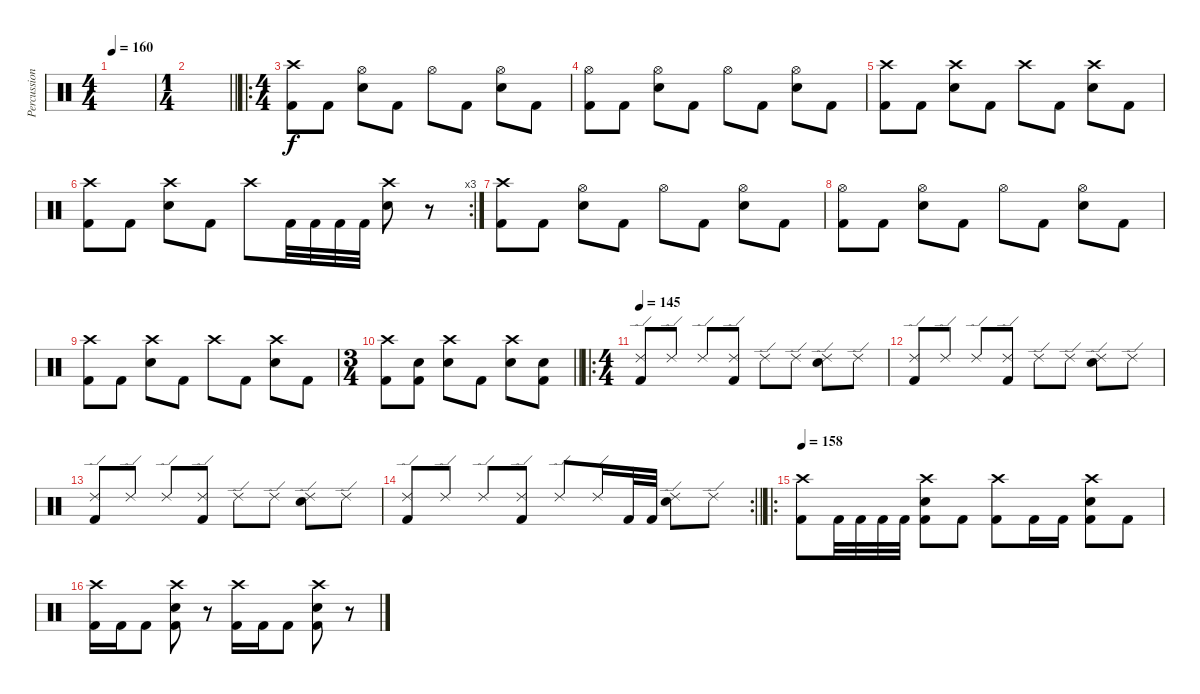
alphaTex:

\track ("Percussion" "Percussion") {instrument percussion}
\staff {score}
\articulation defaults
\ts (4 4)
\tempo 160
\clef neutral
\ks c
|
\ts (1 4)
\barLineRight lightlight
|
\ro
\ts (4 4)
\section ("" "")
("Crash high (hit)" "Kick (hit) 2").8 "Kick (hit) 2".8 ("Hi-Hat (open)" "Snare (hit) 2").8 "Kick (hit) 2".8 "Hi-Hat (open)".8 "Kick (hit) 2".8 ("Hi-Hat (open)" "Snare (hit) 2").8 "Kick (hit) 2".8 |
("Hi-Hat (open)" "Kick (hit) 2").8 "Kick (hit) 2".8 ("Hi-Hat (open)" "Snare (hit) 2").8 "Kick (hit) 2".8 "Hi-Hat (open)".8 "Kick (hit) 2".8 ("Hi-Hat (open)" "Snare (hit) 2").8 "Kick (hit) 2".8 |
("Crash high (hit)" "Kick (hit) 2").8 "Kick (hit) 2".8 ("Crash high (hit)" "Snare (hit) 2").8 "Kick (hit) 2".8 "Crash high (hit)".8 "Kick (hit) 2".8 ("Crash high (hit)" "Snare (hit) 2").8 "Kick (hit) 2".8 |
\rc 3
("Crash high (hit)" "Kick (hit) 2").8 "Kick (hit) 2".8 ("Crash high (hit)" "Snare (hit) 2").8 "Kick (hit) 2".8 "Crash high (hit)".8 "Kick (hit) 2".32 "Kick (hit) 2".32 "Kick (hit) 2".32 "Kick (hit) 2".32 ("Crash high (hit)" "Snare (hit) 2").8 r.8 |
("Crash high (hit)" "Kick (hit) 2").8 "Kick (hit) 2".8 ("Hi-Hat (open)" "Snare (hit) 2").8 "Kick (hit) 2".8 "Hi-Hat (open)".8 "Kick (hit) 2".8 ("Hi-Hat (open)" "Snare (hit) 2").8 "Kick (hit) 2".8 |
("Hi-Hat (open)" "Kick (hit) 2").8 "Kick (hit) 2".8 ("Hi-Hat (open)" "Snare (hit) 2").8 "Kick (hit) 2".8 "Hi-Hat (open)".8 "Kick (hit) 2".8 ("Hi-Hat (open)" "Snare (hit) 2").8 "Kick (hit) 2".8 |
("Crash high (hit)" "Kick (hit) 2").8 "Kick (hit) 2".8 ("Crash high (hit)" "Snare (hit) 2").8 "Kick (hit) 2".8 "Crash high (hit)".8 "Kick (hit) 2".8 ("Crash high (hit)" "Snare (hit) 2").8 "Kick (hit) 2".8 |
\ts (3 4)
\barLineRight lightlight
("Crash high (hit)" "Kick (hit) 2").8 ("Snare (hit) 2" "Kick (hit) 2").8 ("Crash high (hit)" "Snare (hit) 2").8 "Kick (hit) 2".8 ("Crash high (hit)" "Snare (hit) 2").8 ("Snare (hit) 2" "Kick (hit) 2").8 |
\ro
\ts (4 4)
\section ("" "")
\tempo 145
("Ride (edge) 2" "Kick (hit) 2").8 "Ride (edge) 2".8 "Ride (edge) 2".8 ("Ride (edge) 2" "Kick (hit) 2").8 "Ride (edge) 2".8 "Ride (edge) 2".8 ("Ride (edge) 2" "Snare (hit) 2").8 "Ride (edge) 2".8 |
("Ride (edge) 2" "Kick (hit) 2").8 "Ride (edge) 2".8 "Ride (edge) 2".8 ("Ride (edge) 2" "Kick (hit) 2").8 "Ride (edge) 2".8 "Ride (edge) 2".8 ("Ride (edge) 2" "Snare (hit) 2").8 "Ride (edge) 2".8 |
("Ride (edge) 2" "Kick (hit) 2").8 "Ride (edge) 2".8 "Ride (edge) 2".8 ("Ride (edge) 2" "Kick (hit) 2").8 "Ride (edge) 2".8 "Ride (edge) 2".8 ("Ride (edge) 2" "Snare (hit) 2").8 "Ride (edge) 2".8 |
\rc 2
\barLineRight lightlight
("Ride (edge) 2" "Kick (hit) 2").8 "Ride (edge) 2".8 "Ride (edge) 2".8 ("Ride (edge) 2" "Kick (hit) 2").8 "Ride (edge) 2".8 "Ride (edge) 2".16 "Kick (hit) 2".32 "Kick (hit) 2".32 ("Ride (edge) 2" "Snare (hit) 2").8 "Ride (edge) 2".8 |
\ro
\section ("" "")
\tempo 158
("Crash high (hit)" "Kick (hit) 2").8 "Kick (hit) 2".32 "Kick (hit) 2".32 "Kick (hit) 2".32 "Kick (hit) 2".32 ("Crash high (hit)" "Snare (hit) 2" "Kick (hit) 2").8 "Kick (hit) 2".8 ("Crash high (hit)" "Kick (hit) 2").8 "Kick (hit) 2".16 "Kick (hit) 2".16 ("Crash high (hit)" "Snare (hit) 2" "Kick (hit) 2").8 "Kick (hit) 2".8 |
("Crash high (hit)" "Kick (hit) 2").16 "Kick (hit) 2".16 "Kick (hit) 2".8 ("Crash high (hit)" "Snare (hit) 2" "Kick (hit) 2").8 r.8 ("Crash high (hit)" "Kick (hit) 2").16 "Kick (hit) 2".16 "Kick (hit) 2".8 ("Crash high (hit)" "Snare (hit) 2" "Kick (hit) 2").8 r.8
